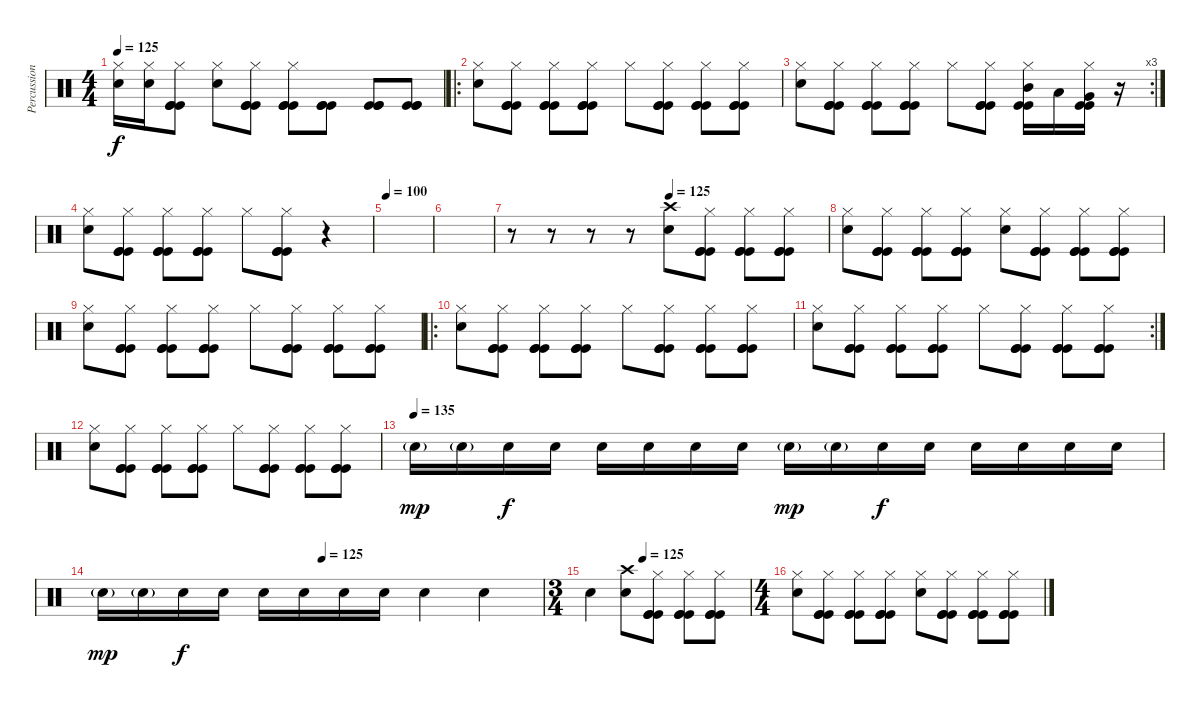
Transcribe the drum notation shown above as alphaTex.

\track ("Percussion" "Percussion") {instrument percussion}
\staff {score}
\articulation defaults
\ts (4 4)
\tempo 125
\clef neutral
\ks c
("Electric Snare (hit)" "Hi-Hat (closed)").16{dy f} ("Electric Snare (hit)" "Hi-Hat (closed)").16 ("Kick (hit)" "Kick (hit)" "Kick (hit)" "Hi-Hat (closed)").8 ("Electric Snare (hit)" "Hi-Hat (closed)").8 ("Kick (hit)" "Kick (hit)" "Kick (hit)" "Hi-Hat (closed)").8 ("Kick (hit)" "Kick (hit)" "Kick (hit)" "Hi-Hat (closed)").8 ("Kick (hit)" "Kick (hit)" "Kick (hit)").8 ("Kick (hit)" "Kick (hit)" "Kick (hit)").8 ("Kick (hit)" "Kick (hit)" "Kick (hit)").8 |
\ro
("Electric Snare (hit)" "Hi-Hat (closed)").8 ("Kick (hit)" "Kick (hit)" "Kick (hit)" "Hi-Hat (closed)").8 ("Kick (hit)" "Kick (hit)" "Kick (hit)" "Hi-Hat (closed)").8 ("Kick (hit)" "Kick (hit)" "Kick (hit)" "Hi-Hat (closed)").8 "Hi-Hat (closed)".8 ("Kick (hit)" "Kick (hit)" "Kick (hit)" "Hi-Hat (closed)").8 ("Kick (hit)" "Kick (hit)" "Kick (hit)" "Hi-Hat (closed)").8 ("Kick (hit)" "Kick (hit)" "Kick (hit)" "Hi-Hat (closed)").8 |
\rc 3
("Electric Snare (hit)" "Hi-Hat (closed)").8 ("Kick (hit)" "Kick (hit)" "Kick (hit)" "Hi-Hat (closed)").8 ("Kick (hit)" "Kick (hit)" "Kick (hit)" "Hi-Hat (closed)").8 ("Kick (hit)" "Kick (hit)" "Kick (hit)" "Hi-Hat (closed)").8 "Hi-Hat (closed)".8 ("Kick (hit)" "Kick (hit)" "Kick (hit)" "Hi-Hat (closed)").8 ("Mid Tom (hit)" "Kick (hit)" "Kick (hit)" "Hi-Hat (closed)").16 "Low Tom (hit)".16 ("Very Low Tom (hit)" "Kick (hit)" "Kick (hit)" "Hi-Hat (closed)").16 r.16 |
("Electric Snare (hit)" "Hi-Hat (closed)").8 ("Kick (hit)" "Kick (hit)" "Kick (hit)" "Hi-Hat (closed)").8 ("Kick (hit)" "Kick (hit)" "Kick (hit)" "Hi-Hat (closed)").8 ("Kick (hit)" "Kick (hit)" "Kick (hit)" "Hi-Hat (closed)").8 "Hi-Hat (closed)".8 ("Kick (hit)" "Kick (hit)" "Kick (hit)" "Hi-Hat (closed)").8 r.4 |
\tempo 100
|
|
\tempo (125 0.5)
r.8 r.8 r.8 r.8 ("Electric Snare (hit)" "Crash high (hit)").8 ("Kick (hit)" "Kick (hit)" "Kick (hit)" "Hi-Hat (closed)").8 ("Kick (hit)" "Kick (hit)" "Kick (hit)" "Hi-Hat (closed)").8 ("Kick (hit)" "Kick (hit)" "Kick (hit)" "Hi-Hat (closed)").8 |
("Electric Snare (hit)" "Hi-Hat (closed)").8 ("Kick (hit)" "Kick (hit)" "Kick (hit)" "Hi-Hat (closed)").8 ("Kick (hit)" "Kick (hit)" "Kick (hit)" "Hi-Hat (closed)").8 ("Kick (hit)" "Kick (hit)" "Kick (hit)" "Hi-Hat (closed)").8 ("Electric Snare (hit)" "Hi-Hat (closed)").8 ("Kick (hit)" "Kick (hit)" "Kick (hit)" "Hi-Hat (closed)").8 ("Kick (hit)" "Kick (hit)" "Kick (hit)" "Hi-Hat (closed)").8 ("Kick (hit)" "Kick (hit)" "Kick (hit)" "Hi-Hat (closed)").8 |
("Electric Snare (hit)" "Hi-Hat (closed)").8 ("Kick (hit)" "Kick (hit)" "Kick (hit)" "Hi-Hat (closed)").8 ("Kick (hit)" "Kick (hit)" "Kick (hit)" "Hi-Hat (closed)").8 ("Kick (hit)" "Kick (hit)" "Kick (hit)" "Hi-Hat (closed)").8 "Hi-Hat (closed)".8 ("Kick (hit)" "Kick (hit)" "Kick (hit)" "Hi-Hat (closed)").8 ("Kick (hit)" "Kick (hit)" "Kick (hit)" "Hi-Hat (closed)").8 ("Kick (hit)" "Kick (hit)" "Kick (hit)" "Hi-Hat (closed)").8 |
\ro
("Electric Snare (hit)" "Hi-Hat (closed)").8 ("Kick (hit)" "Kick (hit)" "Kick (hit)" "Hi-Hat (closed)").8 ("Kick (hit)" "Kick (hit)" "Kick (hit)" "Hi-Hat (closed)").8 ("Kick (hit)" "Kick (hit)" "Kick (hit)" "Hi-Hat (closed)").8 "Hi-Hat (closed)".8 ("Kick (hit)" "Kick (hit)" "Kick (hit)" "Hi-Hat (closed)").8 ("Kick (hit)" "Kick (hit)" "Kick (hit)" "Hi-Hat (closed)").8 ("Kick (hit)" "Kick (hit)" "Kick (hit)" "Hi-Hat (closed)").8 |
\rc 2
("Electric Snare (hit)" "Hi-Hat (closed)").8 ("Kick (hit)" "Kick (hit)" "Kick (hit)" "Hi-Hat (closed)").8 ("Kick (hit)" "Kick (hit)" "Kick (hit)" "Hi-Hat (closed)").8 ("Kick (hit)" "Kick (hit)" "Kick (hit)" "Hi-Hat (closed)").8 "Hi-Hat (closed)".8 ("Kick (hit)" "Kick (hit)" "Kick (hit)" "Hi-Hat (closed)").8 ("Kick (hit)" "Kick (hit)" "Kick (hit)" "Hi-Hat (closed)").8 ("Kick (hit)" "Kick (hit)" "Kick (hit)" "Hi-Hat (closed)").8 |
("Electric Snare (hit)" "Hi-Hat (closed)").8 ("Kick (hit)" "Kick (hit)" "Kick (hit)" "Hi-Hat (closed)").8 ("Kick (hit)" "Kick (hit)" "Kick (hit)" "Hi-Hat (closed)").8 ("Kick (hit)" "Kick (hit)" "Kick (hit)" "Hi-Hat (closed)").8 "Hi-Hat (closed)".8 ("Kick (hit)" "Kick (hit)" "Kick (hit)" "Hi-Hat (closed)").8 ("Kick (hit)" "Kick (hit)" "Kick (hit)" "Hi-Hat (closed)").8 ("Kick (hit)" "Kick (hit)" "Kick (hit)" "Hi-Hat (closed)").8 |
\tempo (135)
"Electric Snare (hit)"{g}.16{dy mp} "Electric Snare (hit)"{g}.16 "Electric Snare (hit)".16{dy f} "Electric Snare (hit)".16 "Electric Snare (hit)".16 "Electric Snare (hit)".16 "Electric Snare (hit)".16 "Electric Snare (hit)".16 "Electric Snare (hit)"{g}.16{dy mp} "Electric Snare (hit)"{g}.16 "Electric Snare (hit)".16{dy f} "Electric Snare (hit)".16 "Electric Snare (hit)".16 "Electric Snare (hit)".16 "Electric Snare (hit)".16 "Electric Snare (hit)".16 |
\tempo (125 0.5)
"Electric Snare (hit)"{g}.16{dy mp} "Electric Snare (hit)"{g}.16 "Electric Snare (hit)".16{dy f} "Electric Snare (hit)".16 "Electric Snare (hit)".16 "Electric Snare (hit)".16 "Electric Snare (hit)".16 "Electric Snare (hit)".16 "Electric Snare (hit)".4 "Electric Snare (hit)".4 |
\ts (3 4)
\tempo (125 0.3333333333333333)
"Electric Snare (hit)".4 ("Electric Snare (hit)" "Crash high (hit)").8 ("Kick (hit)" "Kick (hit)" "Kick (hit)" "Hi-Hat (closed)").8 ("Kick (hit)" "Kick (hit)" "Kick (hit)" "Hi-Hat (closed)").8 ("Kick (hit)" "Kick (hit)" "Kick (hit)" "Hi-Hat (closed)").8 |
\ts (4 4)
("Electric Snare (hit)" "Hi-Hat (closed)").8 ("Kick (hit)" "Kick (hit)" "Kick (hit)" "Hi-Hat (closed)").8 ("Kick (hit)" "Kick (hit)" "Kick (hit)" "Hi-Hat (closed)").8 ("Kick (hit)" "Kick (hit)" "Kick (hit)" "Hi-Hat (closed)").8 ("Electric Snare (hit)" "Hi-Hat (closed)").8 ("Kick (hit)" "Kick (hit)" "Kick (hit)" "Hi-Hat (closed)").8 ("Kick (hit)" "Kick (hit)" "Kick (hit)" "Hi-Hat (closed)").8 ("Kick (hit)" "Kick (hit)" "Kick (hit)" "Hi-Hat (closed)").8
